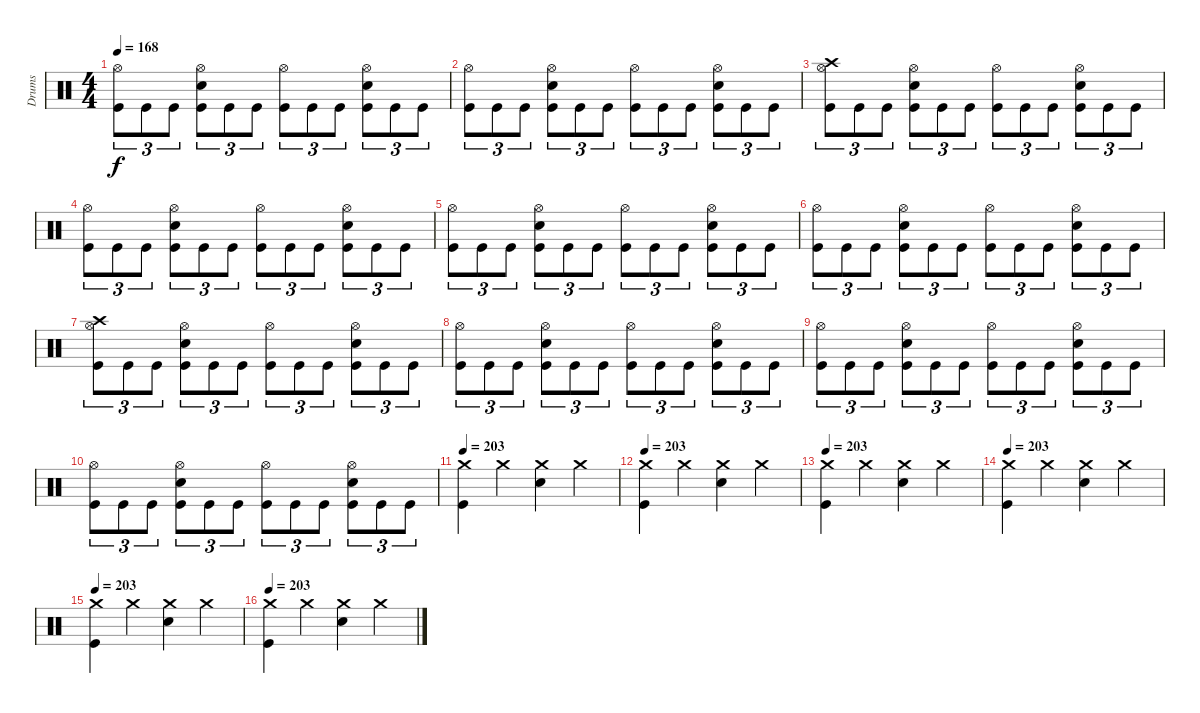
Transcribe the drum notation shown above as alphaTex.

\track ("Drums" "Drums") {instrument percussion}
\staff {score}
\articulation defaults
\ts (4 4)
\tempo 168
\clef neutral
\ks c
("Hi-Hat (open)" "Kick (hit)").8{tu (3 2) dy f} "Kick (hit)".8{tu (3 2)} "Kick (hit)".8{tu (3 2)} ("Hi-Hat (open)" "Electric Snare (hit)" "Kick (hit)").8{tu (3 2)} "Kick (hit)".8{tu (3 2)} "Kick (hit)".8{tu (3 2)} ("Hi-Hat (open)" "Kick (hit)").8{tu (3 2)} "Kick (hit)".8{tu (3 2)} "Kick (hit)".8{tu (3 2)} ("Hi-Hat (open)" "Electric Snare (hit)" "Kick (hit)").8{tu (3 2)} "Kick (hit)".8{tu (3 2)} "Kick (hit)".8{tu (3 2)} |
("Hi-Hat (open)" "Kick (hit)").8{tu (3 2)} "Kick (hit)".8{tu (3 2)} "Kick (hit)".8{tu (3 2)} ("Hi-Hat (open)" "Electric Snare (hit)" "Kick (hit)").8{tu (3 2)} "Kick (hit)".8{tu (3 2)} "Kick (hit)".8{tu (3 2)} ("Hi-Hat (open)" "Kick (hit)").8{tu (3 2)} "Kick (hit)".8{tu (3 2)} "Kick (hit)".8{tu (3 2)} ("Hi-Hat (open)" "Electric Snare (hit)" "Kick (hit)").8{tu (3 2)} "Kick (hit)".8{tu (3 2)} "Kick (hit)".8{tu (3 2)} |
("Hi-Hat (open)" "Crash high (hit)" "Kick (hit)").8{tu (3 2)} "Kick (hit)".8{tu (3 2)} "Kick (hit)".8{tu (3 2)} ("Hi-Hat (open)" "Electric Snare (hit)" "Kick (hit)").8{tu (3 2)} "Kick (hit)".8{tu (3 2)} "Kick (hit)".8{tu (3 2)} ("Hi-Hat (open)" "Kick (hit)").8{tu (3 2)} "Kick (hit)".8{tu (3 2)} "Kick (hit)".8{tu (3 2)} ("Hi-Hat (open)" "Electric Snare (hit)" "Kick (hit)").8{tu (3 2)} "Kick (hit)".8{tu (3 2)} "Kick (hit)".8{tu (3 2)} |
("Hi-Hat (open)" "Kick (hit)").8{tu (3 2)} "Kick (hit)".8{tu (3 2)} "Kick (hit)".8{tu (3 2)} ("Hi-Hat (open)" "Electric Snare (hit)" "Kick (hit)").8{tu (3 2)} "Kick (hit)".8{tu (3 2)} "Kick (hit)".8{tu (3 2)} ("Hi-Hat (open)" "Kick (hit)").8{tu (3 2)} "Kick (hit)".8{tu (3 2)} "Kick (hit)".8{tu (3 2)} ("Hi-Hat (open)" "Electric Snare (hit)" "Kick (hit)").8{tu (3 2)} "Kick (hit)".8{tu (3 2)} "Kick (hit)".8{tu (3 2)} |
("Hi-Hat (open)" "Kick (hit)").8{tu (3 2)} "Kick (hit)".8{tu (3 2)} "Kick (hit)".8{tu (3 2)} ("Hi-Hat (open)" "Electric Snare (hit)" "Kick (hit)").8{tu (3 2)} "Kick (hit)".8{tu (3 2)} "Kick (hit)".8{tu (3 2)} ("Hi-Hat (open)" "Kick (hit)").8{tu (3 2)} "Kick (hit)".8{tu (3 2)} "Kick (hit)".8{tu (3 2)} ("Hi-Hat (open)" "Electric Snare (hit)" "Kick (hit)").8{tu (3 2)} "Kick (hit)".8{tu (3 2)} "Kick (hit)".8{tu (3 2)} |
("Hi-Hat (open)" "Kick (hit)").8{tu (3 2)} "Kick (hit)".8{tu (3 2)} "Kick (hit)".8{tu (3 2)} ("Hi-Hat (open)" "Electric Snare (hit)" "Kick (hit)").8{tu (3 2)} "Kick (hit)".8{tu (3 2)} "Kick (hit)".8{tu (3 2)} ("Hi-Hat (open)" "Kick (hit)").8{tu (3 2)} "Kick (hit)".8{tu (3 2)} "Kick (hit)".8{tu (3 2)} ("Hi-Hat (open)" "Electric Snare (hit)" "Kick (hit)").8{tu (3 2)} "Kick (hit)".8{tu (3 2)} "Kick (hit)".8{tu (3 2)} |
("Hi-Hat (open)" "Crash high (hit)" "Kick (hit)").8{tu (3 2)} "Kick (hit)".8{tu (3 2)} "Kick (hit)".8{tu (3 2)} ("Hi-Hat (open)" "Electric Snare (hit)" "Kick (hit)").8{tu (3 2)} "Kick (hit)".8{tu (3 2)} "Kick (hit)".8{tu (3 2)} ("Hi-Hat (open)" "Kick (hit)").8{tu (3 2)} "Kick (hit)".8{tu (3 2)} "Kick (hit)".8{tu (3 2)} ("Hi-Hat (open)" "Electric Snare (hit)" "Kick (hit)").8{tu (3 2)} "Kick (hit)".8{tu (3 2)} "Kick (hit)".8{tu (3 2)} |
("Hi-Hat (open)" "Kick (hit)").8{tu (3 2)} "Kick (hit)".8{tu (3 2)} "Kick (hit)".8{tu (3 2)} ("Hi-Hat (open)" "Electric Snare (hit)" "Kick (hit)").8{tu (3 2)} "Kick (hit)".8{tu (3 2)} "Kick (hit)".8{tu (3 2)} ("Hi-Hat (open)" "Kick (hit)").8{tu (3 2)} "Kick (hit)".8{tu (3 2)} "Kick (hit)".8{tu (3 2)} ("Hi-Hat (open)" "Electric Snare (hit)" "Kick (hit)").8{tu (3 2)} "Kick (hit)".8{tu (3 2)} "Kick (hit)".8{tu (3 2)} |
("Hi-Hat (open)" "Kick (hit)").8{tu (3 2)} "Kick (hit)".8{tu (3 2)} "Kick (hit)".8{tu (3 2)} ("Hi-Hat (open)" "Electric Snare (hit)" "Kick (hit)").8{tu (3 2)} "Kick (hit)".8{tu (3 2)} "Kick (hit)".8{tu (3 2)} ("Hi-Hat (open)" "Kick (hit)").8{tu (3 2)} "Kick (hit)".8{tu (3 2)} "Kick (hit)".8{tu (3 2)} ("Hi-Hat (open)" "Electric Snare (hit)" "Kick (hit)").8{tu (3 2)} "Kick (hit)".8{tu (3 2)} "Kick (hit)".8{tu (3 2)} |
("Hi-Hat (open)" "Kick (hit)").8{tu (3 2)} "Kick (hit)".8{tu (3 2)} "Kick (hit)".8{tu (3 2)} ("Hi-Hat (open)" "Electric Snare (hit)" "Kick (hit)").8{tu (3 2)} "Kick (hit)".8{tu (3 2)} "Kick (hit)".8{tu (3 2)} ("Hi-Hat (open)" "Kick (hit)").8{tu (3 2)} "Kick (hit)".8{tu (3 2)} "Kick (hit)".8{tu (3 2)} ("Hi-Hat (open)" "Electric Snare (hit)" "Kick (hit)").8{tu (3 2)} "Kick (hit)".8{tu (3 2)} "Kick (hit)".8{tu (3 2)} |
\tempo 203
("Crash medium (hit)" "Kick (hit)").4 "Crash medium (hit)".4 ("Electric Snare (hit)" "Crash medium (hit)").4 "Crash medium (hit)".4 |
\tempo 203
("Crash medium (hit)" "Kick (hit)").4 "Crash medium (hit)".4 ("Electric Snare (hit)" "Crash medium (hit)").4 "Crash medium (hit)".4 |
\tempo 203
("Crash medium (hit)" "Kick (hit)").4 "Crash medium (hit)".4 ("Electric Snare (hit)" "Crash medium (hit)").4 "Crash medium (hit)".4 |
\tempo 203
("Crash medium (hit)" "Kick (hit)").4 "Crash medium (hit)".4 ("Electric Snare (hit)" "Crash medium (hit)").4 "Crash medium (hit)".4 |
\tempo 203
("Crash medium (hit)" "Kick (hit)").4 "Crash medium (hit)".4 ("Electric Snare (hit)" "Crash medium (hit)").4 "Crash medium (hit)".4 |
\tempo 203
("Crash medium (hit)" "Kick (hit)").4 "Crash medium (hit)".4 ("Electric Snare (hit)" "Crash medium (hit)").4 "Crash medium (hit)".4
